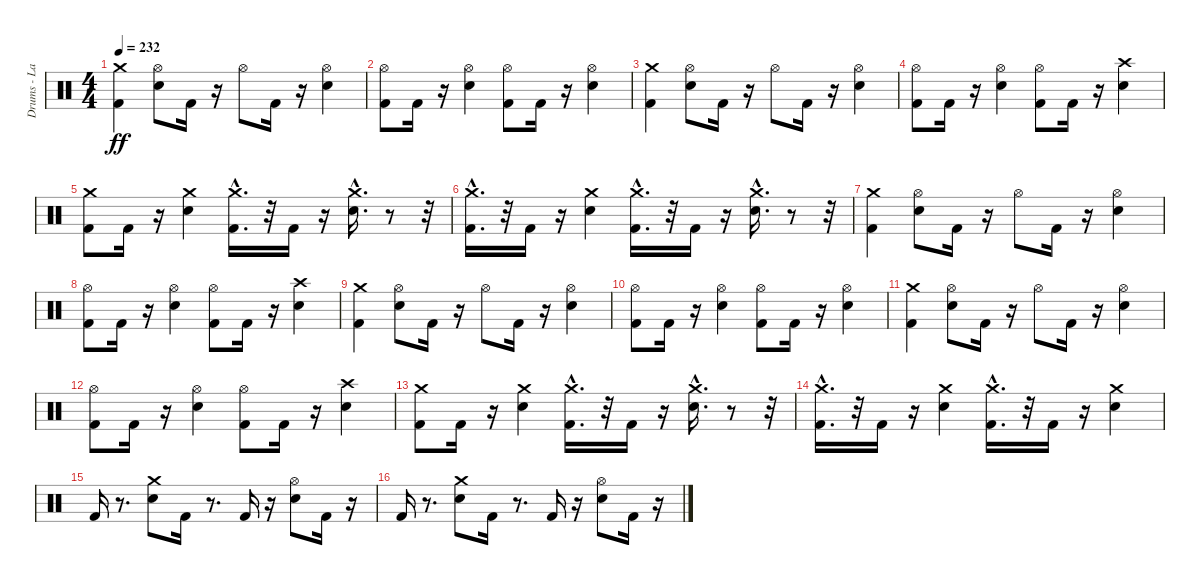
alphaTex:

\track ("Drums - Larzon" "Drums - La") {instrument percussion}
\staff {score}
\articulation defaults
\ts (4 4)
\tempo 232
\clef neutral
\ks c
("Kick (hit) 2" "Crash medium (hit)").4{dy ff} ("Electric Snare (hit)" "Hi-Hat (open)").8 "Kick (hit) 2".16 r.16 "Hi-Hat (open)".8 "Kick (hit) 2".16 r.16 ("Electric Snare (hit)" "Hi-Hat (open)").4 |
("Kick (hit) 2" "Hi-Hat (open)").8 "Kick (hit) 2".16 r.16 ("Electric Snare (hit)" "Hi-Hat (open)").4 ("Kick (hit) 2" "Hi-Hat (open)").8 "Kick (hit) 2".16 r.16 ("Electric Snare (hit)" "Hi-Hat (open)").4 |
("Kick (hit) 2" "Crash medium (hit)").4 ("Electric Snare (hit)" "Hi-Hat (open)").8 "Kick (hit) 2".16 r.16 "Hi-Hat (open)".8 "Kick (hit) 2".16 r.16 ("Electric Snare (hit)" "Hi-Hat (open)").4 |
("Kick (hit) 2" "Hi-Hat (open)").8 "Kick (hit) 2".16 r.16 ("Electric Snare (hit)" "Hi-Hat (open)").4 ("Kick (hit) 2" "Hi-Hat (open)").8 "Kick (hit) 2".16 r.16 ("Electric Snare (hit)" "Crash high (hit)").4 |
("Kick (hit) 2" "Crash medium (hit)").8 "Kick (hit) 2".16 r.16 ("Electric Snare (hit)" "Crash medium (hit)").4 ("Crash medium (hit)"{hac} "Kick (hit) 2").16{d} r.32 "Kick (hit) 2".16 r.16 ("Electric Snare (hit)" "Crash medium (hit)"{hac}).16{d} r.8 r.32 |
("Kick (hit) 2" "Crash medium (hit)"{hac}).16{d} r.32 "Kick (hit) 2".16 r.16 ("Electric Snare (hit)" "Crash medium (hit)").4 ("Kick (hit) 2" "Crash medium (hit)"{hac}).16{d} r.32 "Kick (hit) 2".16 r.16 ("Electric Snare (hit)" "Crash medium (hit)"{hac}).16{d} r.8 r.32 |
("Kick (hit) 2" "Crash medium (hit)").4 ("Electric Snare (hit)" "Hi-Hat (open)").8 "Kick (hit) 2".16 r.16 "Hi-Hat (open)".8 "Kick (hit) 2".16 r.16 ("Electric Snare (hit)" "Hi-Hat (open)").4 |
("Kick (hit) 2" "Hi-Hat (open)").8 "Kick (hit) 2".16 r.16 ("Electric Snare (hit)" "Hi-Hat (open)").4 ("Kick (hit) 2" "Hi-Hat (open)").8 "Kick (hit) 2".16 r.16 ("Electric Snare (hit)" "Crash high (hit)").4 |
("Kick (hit) 2" "Crash medium (hit)").4 ("Electric Snare (hit)" "Hi-Hat (open)").8 "Kick (hit) 2".16 r.16 "Hi-Hat (open)".8 "Kick (hit) 2".16 r.16 ("Electric Snare (hit)" "Hi-Hat (open)").4 |
("Kick (hit) 2" "Hi-Hat (open)").8 "Kick (hit) 2".16 r.16 ("Electric Snare (hit)" "Hi-Hat (open)").4 ("Kick (hit) 2" "Hi-Hat (open)").8 "Kick (hit) 2".16 r.16 ("Electric Snare (hit)" "Hi-Hat (open)").4 |
("Kick (hit) 2" "Crash medium (hit)").4 ("Electric Snare (hit)" "Hi-Hat (open)").8 "Kick (hit) 2".16 r.16 "Hi-Hat (open)".8 "Kick (hit) 2".16 r.16 ("Electric Snare (hit)" "Hi-Hat (open)").4 |
("Kick (hit) 2" "Hi-Hat (open)").8 "Kick (hit) 2".16 r.16 ("Electric Snare (hit)" "Hi-Hat (open)").4 ("Kick (hit) 2" "Hi-Hat (open)").8 "Kick (hit) 2".16 r.16 ("Electric Snare (hit)" "Crash high (hit)").4 |
("Kick (hit) 2" "Crash medium (hit)").8 "Kick (hit) 2".16 r.16 ("Electric Snare (hit)" "Crash medium (hit)").4 ("Crash medium (hit)"{hac} "Kick (hit) 2").16{d} r.32 "Kick (hit) 2".16 r.16 ("Electric Snare (hit)" "Crash medium (hit)"{hac}).16{d} r.8 r.32 |
("Kick (hit) 2" "Crash medium (hit)"{hac}).16{d} r.32 "Kick (hit) 2".16 r.16 ("Electric Snare (hit)" "Crash medium (hit)").4 ("Kick (hit) 2" "Crash medium (hit)"{hac}).16{d} r.32 "Kick (hit) 2".16 r.16 ("Electric Snare (hit)" "Crash medium (hit)").4 |
"Kick (hit) 2".16 r.8{d} ("Electric Snare (hit)" "Crash medium (hit)").8 "Kick (hit) 2".16 r.8{d} "Kick (hit) 2".16 r.16 ("Electric Snare (hit)" "Hi-Hat (open)").8 "Kick (hit) 2".16 r.16 |
"Kick (hit) 2".16 r.8{d} ("Electric Snare (hit)" "Crash medium (hit)").8 "Kick (hit) 2".16 r.8{d} "Kick (hit) 2".16 r.16 ("Electric Snare (hit)" "Hi-Hat (open)").8 "Kick (hit) 2".16 r.16
